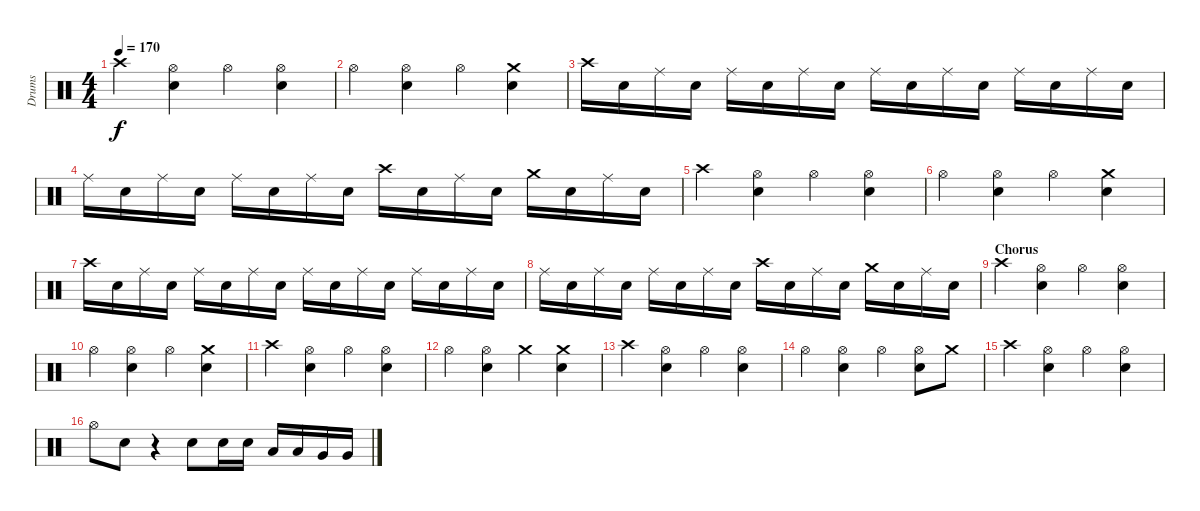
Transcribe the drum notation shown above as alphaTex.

\track ("Drums" "Drums") {instrument percussion}
\staff {score}
\articulation defaults
\ts (4 4)
\tempo 170
\clef neutral
\ks c "Crash high (hit)".4{dy f}
("Hi-Hat (open)" "Electric Snare (hit)").4 "Hi-Hat (open)".4 ("Hi-Hat (open)" "Electric Snare (hit)").4 |
"Hi-Hat (open)".4 ("Hi-Hat (open)" "Electric Snare (hit)").4 "Hi-Hat (open)".4 ("Crash medium (hit)" "Electric Snare (hit)").4 |
"Crash high (hit)".16 "Electric Snare (hit)".16 "Ride (middle)".16 "Electric Snare (hit)".16 "Ride (middle)".16 "Electric Snare (hit)".16 "Ride (middle)".16 "Electric Snare (hit)".16 "Ride (middle)".16 "Electric Snare (hit)".16 "Ride (middle)".16 "Electric Snare (hit)".16 "Ride (middle)".16 "Electric Snare (hit)".16 "Ride (middle)".16 "Electric Snare (hit)".16 |
"Ride (middle)".16 "Electric Snare (hit)".16 "Ride (middle)".16 "Electric Snare (hit)".16 "Ride (middle)".16 "Electric Snare (hit)".16 "Ride (middle)".16 "Electric Snare (hit)".16 "Crash high (hit)".16 "Electric Snare (hit)".16 "Ride (middle)".16 "Electric Snare (hit)".16 "Crash medium (hit)".16 "Electric Snare (hit)".16 "Ride (middle)".16 "Electric Snare (hit)".16 |
"Crash high (hit)".4 ("Hi-Hat (open)" "Electric Snare (hit)").4 "Hi-Hat (open)".4 ("Hi-Hat (open)" "Electric Snare (hit)").4 |
"Hi-Hat (open)".4 ("Hi-Hat (open)" "Electric Snare (hit)").4 "Hi-Hat (open)".4 ("Crash medium (hit)" "Electric Snare (hit)").4 |
"Crash high (hit)".16 "Electric Snare (hit)".16 "Ride (middle)".16 "Electric Snare (hit)".16 "Ride (middle)".16 "Electric Snare (hit)".16 "Ride (middle)".16 "Electric Snare (hit)".16 "Ride (middle)".16 "Electric Snare (hit)".16 "Ride (middle)".16 "Electric Snare (hit)".16 "Ride (middle)".16 "Electric Snare (hit)".16 "Ride (middle)".16 "Electric Snare (hit)".16 |
"Ride (middle)".16 "Electric Snare (hit)".16 "Ride (middle)".16 "Electric Snare (hit)".16 "Ride (middle)".16 "Electric Snare (hit)".16 "Ride (middle)".16 "Electric Snare (hit)".16 "Crash high (hit)".16 "Electric Snare (hit)".16 "Ride (middle)".16 "Electric Snare (hit)".16 "Crash medium (hit)".16 "Electric Snare (hit)".16 "Ride (middle)".16 "Electric Snare (hit)".16 |
\section ("" "Chorus")
"Crash high (hit)".4 ("Hi-Hat (open)" "Electric Snare (hit)").4 "Hi-Hat (open)".4 ("Hi-Hat (open)" "Electric Snare (hit)").4 |
"Hi-Hat (open)".4 ("Hi-Hat (open)" "Electric Snare (hit)").4 "Hi-Hat (open)".4 ("Crash medium (hit)" "Electric Snare (hit)").4 |
"Crash high (hit)".4 ("Hi-Hat (open)" "Electric Snare (hit)").4 "Hi-Hat (open)".4 ("Hi-Hat (open)" "Electric Snare (hit)").4 |
"Hi-Hat (open)".4 ("Hi-Hat (open)" "Electric Snare (hit)").4 "Crash medium (hit)".4 ("Crash medium (hit)" "Electric Snare (hit)").4 |
"Crash high (hit)".4 ("Hi-Hat (open)" "Electric Snare (hit)").4 "Hi-Hat (open)".4 ("Hi-Hat (open)" "Electric Snare (hit)").4 |
"Hi-Hat (open)".4 ("Hi-Hat (open)" "Electric Snare (hit)").4 "Hi-Hat (open)".4 ("Hi-Hat (open)" "Electric Snare (hit)").8 "Crash medium (hit)".8 |
"Crash high (hit)".4 ("Hi-Hat (open)" "Electric Snare (hit)").4 "Hi-Hat (open)".4 ("Hi-Hat (open)" "Electric Snare (hit)").4 |
"Hi-Hat (open)".8 "Electric Snare (hit)".8 r.4 "Electric Snare (hit)".8 "Electric Snare (hit)".16 "Electric Snare (hit)".16 "Low Tom (hit)".16 "Low Tom (hit)".16 "Very Low Tom (hit)".16 "Very Low Tom (hit)".16
